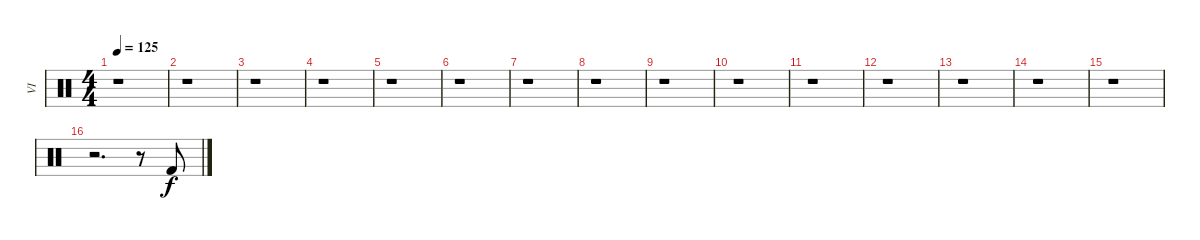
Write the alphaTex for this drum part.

\track ("VI" "VI") {instrument percussion}
\staff {score}
\articulation defaults
\ts (4 4)
\tempo 125
\clef neutral
\ks c
r.1{dy f} |
r.1 |
r.1 |
r.1 |
r.1 |
r.1 |
r.1 |
r.1 |
r.1 |
r.1 |
r.1 |
r.1 |
r.1 |
r.1 |
r.1 |
r.2{d} r.8 "Kick (hit) 2".8
